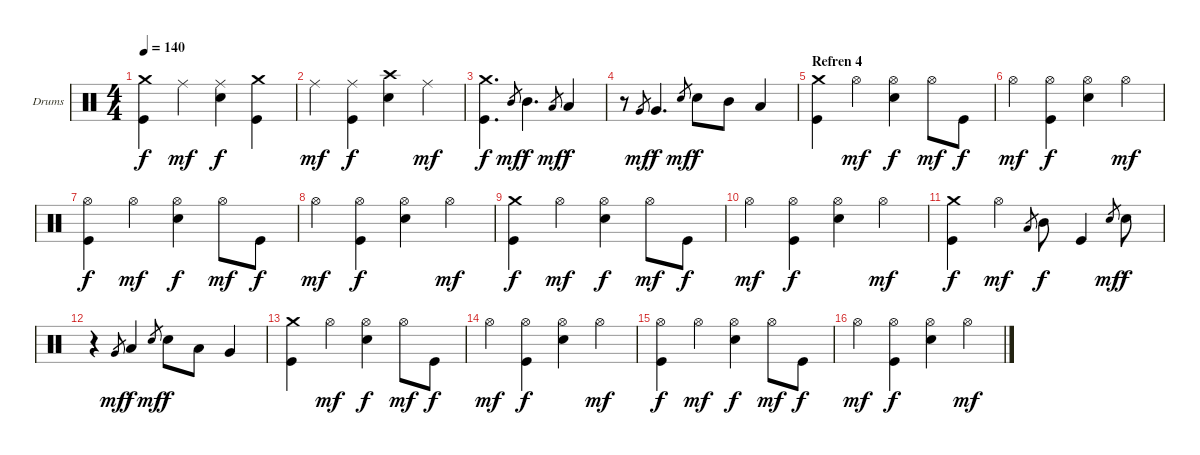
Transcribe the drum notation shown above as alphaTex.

\bracketExtendMode groupsimilarinstruments
\firstSystemTrackNameOrientation horizontal
\otherSystemsTrackNameOrientation horizontal
\track ("Drumkit" "Drums") {instrument percussion}
\staff {score}
\articulation defaults
\ts (4 4)
\tempo 140
\clef neutral
\ks c
("Kick (hit)" "Crash medium (hit)").4{dy f} "Ride (middle)".4{dy mf} ("Snare (hit) 2" "Ride (middle)").4{dy f} ("Kick (hit)" "Crash medium (hit)").4 |
"Ride (middle)".4{dy mf} ("Kick (hit)" "Ride (middle)").4{dy f} ("Snare (hit) 2" "Crash high (hit)").4 "Ride (middle)".4{dy mf} |
("Kick (hit)" "Crash medium (hit)").4{d dy f} "Mid Tom (hit)".8{gr dy mf} "Mid Tom (hit)".4{d dy f} "Low Tom (hit)".8{gr dy mf} "Low Tom (hit)".4{dy f} |
r.8 "Very Low Tom (hit)".8{gr dy mf} "Very Low Tom (hit)".4{d dy f} "Snare (hit) 2".8{gr dy mf} "Snare (hit) 2".8{dy f} "Mid Tom (hit)".8 "Low Tom (hit)".4 |
\section ("" "Refren 4")
("Kick (hit)" "Crash medium (hit)").4 "Hi-Hat (open)".4{dy mf} ("Snare (hit) 2" "Hi-Hat (open)").4{dy f} "Hi-Hat (open)".8{dy mf} "Kick (hit)".8{dy f} |
"Hi-Hat (open)".4{dy mf} ("Kick (hit)" "Hi-Hat (open)").4{dy f} ("Snare (hit) 2" "Hi-Hat (open)").4 "Hi-Hat (open)".4{dy mf} |
("Kick (hit)" "Hi-Hat (open)").4{dy f} "Hi-Hat (open)".4{dy mf} ("Snare (hit) 2" "Hi-Hat (open)").4{dy f} "Hi-Hat (open)".8{dy mf} "Kick (hit)".8{dy f} |
"Hi-Hat (open)".4{dy mf} ("Kick (hit)" "Hi-Hat (open)").4{dy f} ("Snare (hit) 2" "Hi-Hat (open)").4 "Hi-Hat (open)".4{dy mf} |
("Kick (hit)" "Crash medium (hit)").4{dy f} "Hi-Hat (open)".4{dy mf} ("Snare (hit) 2" "Hi-Hat (open)").4{dy f} "Hi-Hat (open)".8{dy mf} "Kick (hit)".8{dy f} |
"Hi-Hat (open)".4{dy mf} ("Kick (hit)" "Hi-Hat (open)").4{dy f} ("Snare (hit) 2" "Hi-Hat (open)").4 "Hi-Hat (open)".4{dy mf} |
("Kick (hit)" "Crash medium (hit)").4{dy f} "Hi-Hat (open)".4{dy mf} "Low Tom (hit)".8{gr} "Mid Tom (hit)".8{dy f} "Kick (hit)".4 "Snare (hit) 2".8{gr dy mf} "Snare (hit) 2".8{dy f} |
r.4 "Very Low Tom (hit)".8{gr dy mf} "Low Tom (hit)".4{dy f} "Snare (hit) 2".8{gr dy mf} "Snare (hit) 2".8{dy f} "Low Tom (hit)".8 "Very Low Tom (hit)".4 |
("Kick (hit)" "Crash medium (hit)").4 "Hi-Hat (open)".4{dy mf} ("Snare (hit) 2" "Hi-Hat (open)").4{dy f} "Hi-Hat (open)".8{dy mf} "Kick (hit)".8{dy f} |
"Hi-Hat (open)".4{dy mf} ("Kick (hit)" "Hi-Hat (open)").4{dy f} ("Snare (hit) 2" "Hi-Hat (open)").4 "Hi-Hat (open)".4{dy mf} |
("Kick (hit)" "Hi-Hat (open)").4{dy f} "Hi-Hat (open)".4{dy mf} ("Snare (hit) 2" "Hi-Hat (open)").4{dy f} "Hi-Hat (open)".8{dy mf} "Kick (hit)".8{dy f} |
"Hi-Hat (open)".4{dy mf} ("Kick (hit)" "Hi-Hat (open)").4{dy f} ("Snare (hit) 2" "Hi-Hat (open)").4 "Hi-Hat (open)".4{dy mf}
